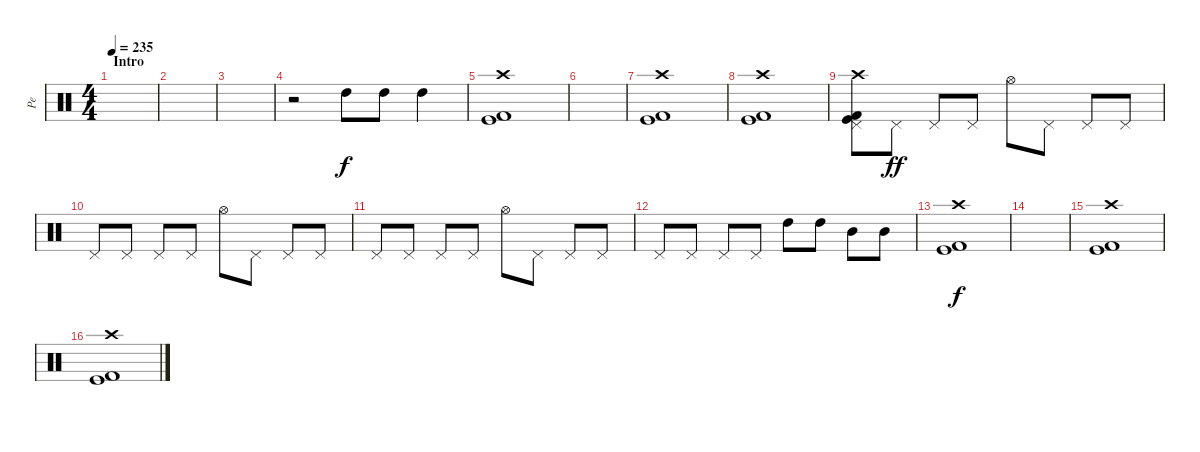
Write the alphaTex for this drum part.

\track ("Pe" "Pe") {instrument percussion}
\staff {score}
\articulation defaults
\ts (4 4)
\section ("" "Intro")
\tempo 235
\clef neutral
\ks c
|
|
|
r.2 "High Tom (hit)".8 "High Tom (hit)".8 "High Tom (hit)".4 |
("Crash high (hit)" "Kick (hit)" "Kick (hit) 2").1{dy f} |
|
("Crash high (hit)" "Kick (hit)" "Kick (hit) 2").1 |
("Crash high (hit)" "Kick (hit)" "Kick (hit) 2").1 |
("Pedal Hi-Hat (hit)" "Crash high (hit)" "Kick (hit)" "Kick (hit) 2").8 "Pedal Hi-Hat (hit)".8{dy ff} "Pedal Hi-Hat (hit)".8 "Pedal Hi-Hat (hit)".8 "Hi-Hat (open)".8 "Pedal Hi-Hat (hit)".8 "Pedal Hi-Hat (hit)".8 "Pedal Hi-Hat (hit)".8 |
"Pedal Hi-Hat (hit)".8 "Pedal Hi-Hat (hit)".8 "Pedal Hi-Hat (hit)".8 "Pedal Hi-Hat (hit)".8 "Hi-Hat (open)".8 "Pedal Hi-Hat (hit)".8 "Pedal Hi-Hat (hit)".8 "Pedal Hi-Hat (hit)".8 |
"Pedal Hi-Hat (hit)".8 "Pedal Hi-Hat (hit)".8 "Pedal Hi-Hat (hit)".8 "Pedal Hi-Hat (hit)".8 "Hi-Hat (open)".8 "Pedal Hi-Hat (hit)".8 "Pedal Hi-Hat (hit)".8 "Pedal Hi-Hat (hit)".8 |
"Pedal Hi-Hat (hit)".8 "Pedal Hi-Hat (hit)".8 "Pedal Hi-Hat (hit)".8 "Pedal Hi-Hat (hit)".8 "High Tom (hit)".8 "High Tom (hit)".8 "Mid Tom (hit)".8 "Mid Tom (hit)".8 |
("Crash high (hit)" "Kick (hit)" "Kick (hit) 2").1{dy f} |
|
("Crash high (hit)" "Kick (hit)" "Kick (hit) 2").1 |
("Crash high (hit)" "Kick (hit)" "Kick (hit) 2").1
